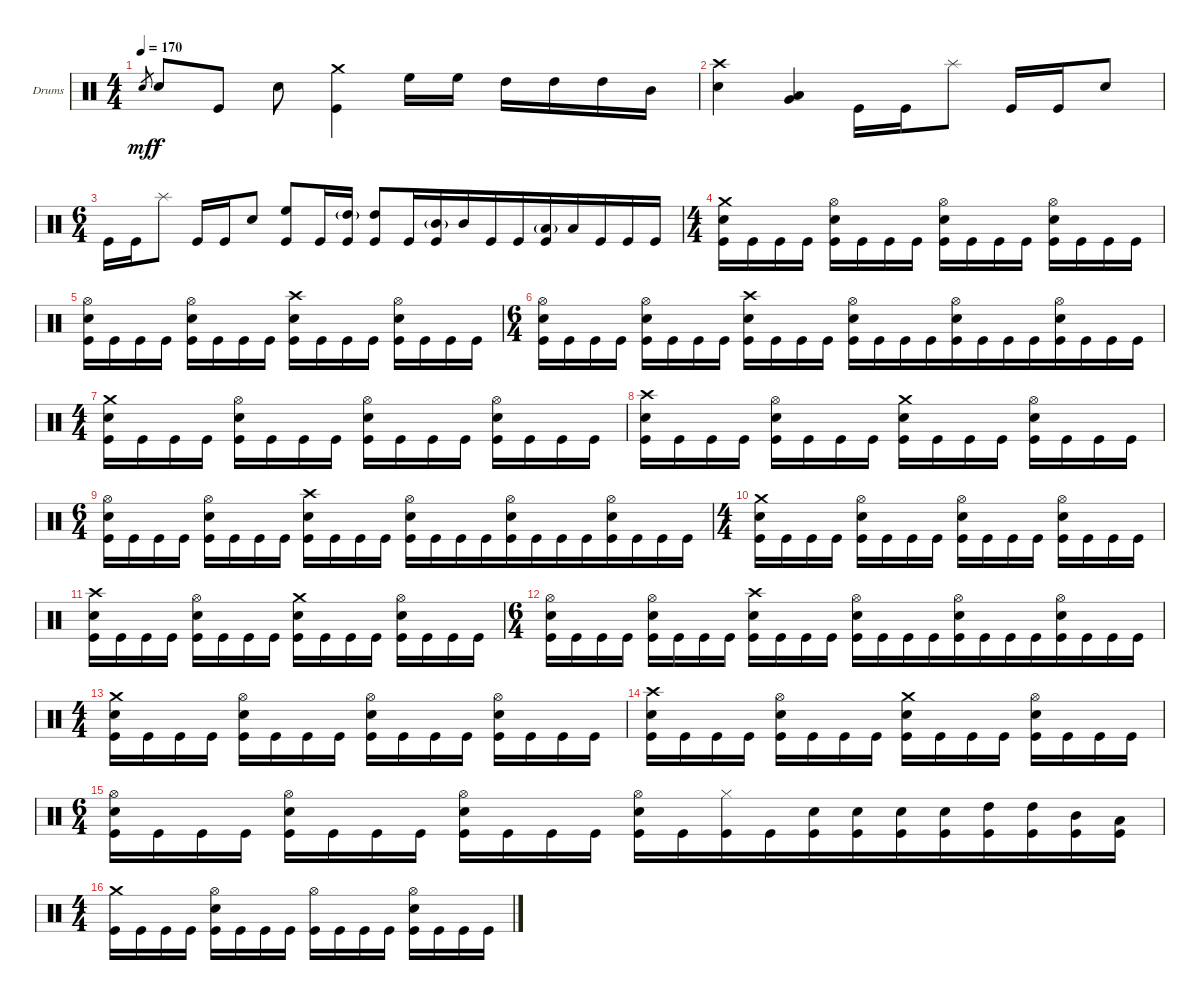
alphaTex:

\bracketExtendMode groupsimilarinstruments
\firstSystemTrackNameOrientation horizontal
\otherSystemsTrackNameOrientation horizontal
\track ("Дмитрий Кривенков" "Drums") {instrument percussion}
\staff {score}
\articulation defaults
\ts (4 4)
\beaming (8 2 2 2 2)
\tempo 170
\clef neutral
\ks c "Snare (hit) 2".8{gr dy mf} "Snare (hit) 2".8{dy f} "Kick (hit)".8 "Snare (hit) 2".8
("Crash medium (hit)" "Kick (hit)").4 "High Floor Tom (hit)".16 "High Floor Tom (hit)".16 "High Tom (hit)".16 "High Tom (hit)".16 "High Tom (hit)".16 "Mid Tom (hit)".16 |
("Crash high (hit)" "Snare (hit) 2").4 ("Very Low Tom (hit)" "Low Tom (hit)").4 "Kick (hit)".16 "Kick (hit)".16 "Splash (hit)".8 "Kick (hit)".16 "Kick (hit)".16 "Snare (hit) 2".8 |
\ts (6 4)
\beaming (8 2 2 2 6)
"Kick (hit)".16 "Kick (hit)".16 "Splash (hit)".8 "Kick (hit)".16 "Kick (hit)".16 "Snare (hit) 2".8 ("High Floor Tom (hit)" "Kick (hit)").8 "Kick (hit)".16 ("High Tom (hit)"{g} "Kick (hit)").16 ("High Tom (hit)" "Kick (hit)").8 "Kick (hit)".16 ("Mid Tom (hit)"{g} "Kick (hit)").16 "Mid Tom (hit)".16 "Kick (hit)".16 "Kick (hit)".16 ("Low Tom (hit)"{g} "Kick (hit)").16 "Low Tom (hit)".16 "Kick (hit)".16 "Kick (hit)".16 "Kick (hit)".16 |
\ts (4 4)
\beaming (8 2 2 2 2)
("Crash medium (hit)" "Snare (hit) 2" "Kick (hit)").16 "Kick (hit)".16 "Kick (hit)".16 "Kick (hit)".16 ("Hi-Hat (open)" "Snare (hit) 2" "Kick (hit)").16 "Kick (hit)".16 "Kick (hit)".16 "Kick (hit)".16 ("Hi-Hat (open)" "Snare (hit) 2" "Kick (hit)").16 "Kick (hit)".16 "Kick (hit)".16 "Kick (hit)".16 ("Hi-Hat (open)" "Snare (hit) 2" "Kick (hit)").16 "Kick (hit)".16 "Kick (hit)".16 "Kick (hit)".16 |
("Hi-Hat (open)" "Snare (hit) 2" "Kick (hit)").16 "Kick (hit)".16 "Kick (hit)".16 "Kick (hit)".16 ("Hi-Hat (open)" "Snare (hit) 2" "Kick (hit)").16 "Kick (hit)".16 "Kick (hit)".16 "Kick (hit)".16 ("Crash high (hit)" "Snare (hit) 2" "Kick (hit)").16 "Kick (hit)".16 "Kick (hit)".16 "Kick (hit)".16 ("Hi-Hat (open)" "Snare (hit) 2" "Kick (hit)").16 "Kick (hit)".16 "Kick (hit)".16 "Kick (hit)".16 |
\ts (6 4)
\beaming (8 2 2 2 6)
("Hi-Hat (open)" "Snare (hit) 2" "Kick (hit)").16 "Kick (hit)".16 "Kick (hit)".16 "Kick (hit)".16 ("Hi-Hat (open)" "Snare (hit) 2" "Kick (hit)").16 "Kick (hit)".16 "Kick (hit)".16 "Kick (hit)".16 ("Crash high (hit)" "Snare (hit) 2" "Kick (hit)").16 "Kick (hit)".16 "Kick (hit)".16 "Kick (hit)".16 ("Hi-Hat (open)" "Snare (hit) 2" "Kick (hit)").16 "Kick (hit)".16 "Kick (hit)".16 "Kick (hit)".16 ("Hi-Hat (open)" "Snare (hit) 2" "Kick (hit)").16 "Kick (hit)".16 "Kick (hit)".16 "Kick (hit)".16 ("Hi-Hat (open)" "Snare (hit) 2" "Kick (hit)").16 "Kick (hit)".16 "Kick (hit)".16 "Kick (hit)".16 |
\ts (4 4)
\beaming (8 2 2 2 2)
("Crash medium (hit)" "Snare (hit) 2" "Kick (hit)").16 "Kick (hit)".16 "Kick (hit)".16 "Kick (hit)".16 ("Hi-Hat (open)" "Snare (hit) 2" "Kick (hit)").16 "Kick (hit)".16 "Kick (hit)".16 "Kick (hit)".16 ("Hi-Hat (open)" "Snare (hit) 2" "Kick (hit)").16 "Kick (hit)".16 "Kick (hit)".16 "Kick (hit)".16 ("Hi-Hat (open)" "Snare (hit) 2" "Kick (hit)").16 "Kick (hit)".16 "Kick (hit)".16 "Kick (hit)".16 |
("Crash high (hit)" "Snare (hit) 2" "Kick (hit)").16 "Kick (hit)".16 "Kick (hit)".16 "Kick (hit)".16 ("Hi-Hat (open)" "Snare (hit) 2" "Kick (hit)").16 "Kick (hit)".16 "Kick (hit)".16 "Kick (hit)".16 ("Crash medium (hit)" "Snare (hit) 2" "Kick (hit)").16 "Kick (hit)".16 "Kick (hit)".16 "Kick (hit)".16 ("Hi-Hat (open)" "Snare (hit) 2" "Kick (hit)").16 "Kick (hit)".16 "Kick (hit)".16 "Kick (hit)".16 |
\ts (6 4)
\beaming (8 2 2 2 6)
("Hi-Hat (open)" "Snare (hit) 2" "Kick (hit)").16 "Kick (hit)".16 "Kick (hit)".16 "Kick (hit)".16 ("Hi-Hat (open)" "Snare (hit) 2" "Kick (hit)").16 "Kick (hit)".16 "Kick (hit)".16 "Kick (hit)".16 ("Crash high (hit)" "Snare (hit) 2" "Kick (hit)").16 "Kick (hit)".16 "Kick (hit)".16 "Kick (hit)".16 ("Hi-Hat (open)" "Snare (hit) 2" "Kick (hit)").16 "Kick (hit)".16 "Kick (hit)".16 "Kick (hit)".16 ("Hi-Hat (open)" "Snare (hit) 2" "Kick (hit)").16 "Kick (hit)".16 "Kick (hit)".16 "Kick (hit)".16 ("Hi-Hat (open)" "Snare (hit) 2" "Kick (hit)").16 "Kick (hit)".16 "Kick (hit)".16 "Kick (hit)".16 |
\ts (4 4)
\beaming (8 2 2 2 2)
("Crash medium (hit)" "Snare (hit) 2" "Kick (hit)").16 "Kick (hit)".16 "Kick (hit)".16 "Kick (hit)".16 ("Hi-Hat (open)" "Snare (hit) 2" "Kick (hit)").16 "Kick (hit)".16 "Kick (hit)".16 "Kick (hit)".16 ("Hi-Hat (open)" "Snare (hit) 2" "Kick (hit)").16 "Kick (hit)".16 "Kick (hit)".16 "Kick (hit)".16 ("Hi-Hat (open)" "Snare (hit) 2" "Kick (hit)").16 "Kick (hit)".16 "Kick (hit)".16 "Kick (hit)".16 |
("Crash high (hit)" "Snare (hit) 2" "Kick (hit)").16 "Kick (hit)".16 "Kick (hit)".16 "Kick (hit)".16 ("Hi-Hat (open)" "Snare (hit) 2" "Kick (hit)").16 "Kick (hit)".16 "Kick (hit)".16 "Kick (hit)".16 ("Crash medium (hit)" "Snare (hit) 2" "Kick (hit)").16 "Kick (hit)".16 "Kick (hit)".16 "Kick (hit)".16 ("Hi-Hat (open)" "Snare (hit) 2" "Kick (hit)").16 "Kick (hit)".16 "Kick (hit)".16 "Kick (hit)".16 |
\ts (6 4)
\beaming (8 2 2 2 6)
("Hi-Hat (open)" "Snare (hit) 2" "Kick (hit)").16 "Kick (hit)".16 "Kick (hit)".16 "Kick (hit)".16 ("Hi-Hat (open)" "Snare (hit) 2" "Kick (hit)").16 "Kick (hit)".16 "Kick (hit)".16 "Kick (hit)".16 ("Crash high (hit)" "Snare (hit) 2" "Kick (hit)").16 "Kick (hit)".16 "Kick (hit)".16 "Kick (hit)".16 ("Hi-Hat (open)" "Snare (hit) 2" "Kick (hit)").16 "Kick (hit)".16 "Kick (hit)".16 "Kick (hit)".16 ("Hi-Hat (open)" "Snare (hit) 2" "Kick (hit)").16 "Kick (hit)".16 "Kick (hit)".16 "Kick (hit)".16 ("Hi-Hat (open)" "Snare (hit) 2" "Kick (hit)").16 "Kick (hit)".16 "Kick (hit)".16 "Kick (hit)".16 |
\ts (4 4)
\beaming (8 2 2 2 2)
("Crash medium (hit)" "Snare (hit) 2" "Kick (hit)").16 "Kick (hit)".16 "Kick (hit)".16 "Kick (hit)".16 ("Hi-Hat (open)" "Snare (hit) 2" "Kick (hit)").16 "Kick (hit)".16 "Kick (hit)".16 "Kick (hit)".16 ("Hi-Hat (open)" "Snare (hit) 2" "Kick (hit)").16 "Kick (hit)".16 "Kick (hit)".16 "Kick (hit)".16 ("Hi-Hat (open)" "Snare (hit) 2" "Kick (hit)").16 "Kick (hit)".16 "Kick (hit)".16 "Kick (hit)".16 |
("Crash high (hit)" "Snare (hit) 2" "Kick (hit)").16 "Kick (hit)".16 "Kick (hit)".16 "Kick (hit)".16 ("Hi-Hat (open)" "Snare (hit) 2" "Kick (hit)").16 "Kick (hit)".16 "Kick (hit)".16 "Kick (hit)".16 ("Crash medium (hit)" "Snare (hit) 2" "Kick (hit)").16 "Kick (hit)".16 "Kick (hit)".16 "Kick (hit)".16 ("Hi-Hat (open)" "Snare (hit) 2" "Kick (hit)").16 "Kick (hit)".16 "Kick (hit)".16 "Kick (hit)".16 |
\ts (6 4)
\beaming (8 2 2 2 6)
("Hi-Hat (open)" "Snare (hit) 2" "Kick (hit)").16 "Kick (hit)".16 "Kick (hit)".16 "Kick (hit)".16 ("Hi-Hat (open)" "Snare (hit) 2" "Kick (hit)").16 "Kick (hit)".16 "Kick (hit)".16 "Kick (hit)".16 ("Hi-Hat (open)" "Snare (hit) 2" "Kick (hit)").16 "Kick (hit)".16 "Kick (hit)".16 "Kick (hit)".16 ("Hi-Hat (open)" "Snare (hit) 2" "Kick (hit)").16 "Kick (hit)".16 ("Hi-Hat (closed)" "Kick (hit)").16 "Kick (hit)".16 ("Snare (hit) 2" "Kick (hit)").16 ("Snare (hit) 2" "Kick (hit)").16 ("Snare (hit) 2" "Kick (hit)").16 ("Snare (hit) 2" "Kick (hit)").16 ("High Tom (hit)" "Kick (hit)").16 ("High Tom (hit)" "Kick (hit)").16 ("Mid Tom (hit)" "Kick (hit)").16 ("Low Tom (hit)" "Kick (hit)").16 |
\ts (4 4)
\beaming (8 2 2 2 2)
("Crash medium (hit)" "Kick (hit)").16 "Kick (hit)".16 "Kick (hit)".16 "Kick (hit)".16 ("Hi-Hat (open)" "Snare (hit) 2" "Kick (hit)").16 "Kick (hit)".16 "Kick (hit)".16 "Kick (hit)".16 ("Hi-Hat (open)" "Kick (hit)").16 "Kick (hit)".16 "Kick (hit)".16 "Kick (hit)".16 ("Hi-Hat (open)" "Snare (hit) 2" "Kick (hit)").16 "Kick (hit)".16 "Kick (hit)".16 "Kick (hit)".16
